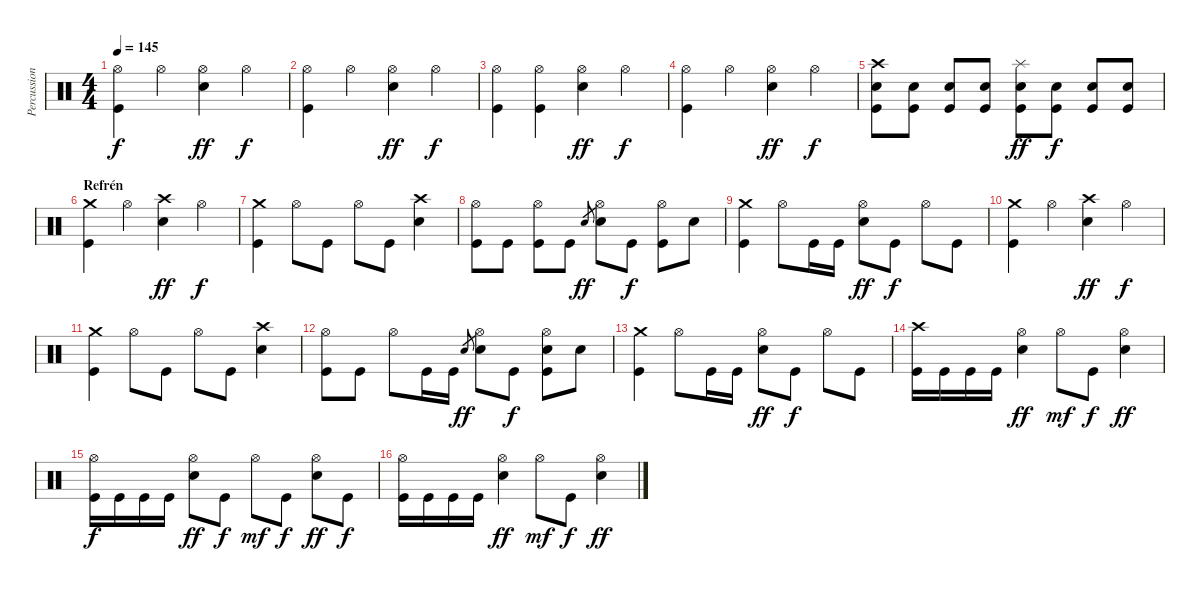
\track ("Percussion" "Percussion") {instrument percussion}
\staff {score}
\articulation defaults
\ts (4 4)
\tempo 145
\clef neutral
\ks c
("Hi-Hat (open)" "Kick (hit)").4{dy f} "Hi-Hat (open)".4 ("Hi-Hat (open)" "Snare (hit) 2").4{dy ff} "Hi-Hat (open)".4{dy f} |
("Hi-Hat (open)" "Kick (hit)").4 "Hi-Hat (open)".4 ("Hi-Hat (open)" "Snare (hit) 2").4{dy ff} "Hi-Hat (open)".4{dy f} |
("Hi-Hat (open)" "Kick (hit)").4 ("Hi-Hat (open)" "Kick (hit)").4 ("Hi-Hat (open)" "Snare (hit) 2").4{dy ff} "Hi-Hat (open)".4{dy f} |
("Hi-Hat (open)" "Kick (hit)").4 "Hi-Hat (open)".4 ("Hi-Hat (open)" "Snare (hit) 2").4{dy ff} "Hi-Hat (open)".4{dy f} |
("Crash high (hit)" "Kick (hit)" "Snare (hit) 2").8 ("Kick (hit)" "Snare (hit) 2").8 ("Kick (hit)" "Snare (hit) 2").8 ("Kick (hit)" "Snare (hit) 2").8 ("Splash (hit)" "Kick (hit)" "Snare (hit) 2").8{dy ff} ("Kick (hit)" "Snare (hit) 2").8{dy f} ("Kick (hit)" "Snare (hit) 2").8 ("Kick (hit)" "Snare (hit) 2").8 |
\section ("" "Refrén")
("Crash medium (hit)" "Kick (hit)").4 "Hi-Hat (open)".4 ("Crash high (hit)" "Snare (hit) 2").4{dy ff} "Hi-Hat (open)".4{dy f} |
("Crash medium (hit)" "Kick (hit)").4 "Hi-Hat (open)".8 "Kick (hit)".8 "Hi-Hat (open)".8 "Kick (hit)".8 ("Crash high (hit)" "Snare (hit) 2").4 |
("Hi-Hat (open)" "Kick (hit)").8 "Kick (hit)".8 ("Hi-Hat (open)" "Kick (hit)").8 "Kick (hit)".8 "Snare (hit) 2".8{gr dy ff} ("Hi-Hat (open)" "Snare (hit) 2").8 "Kick (hit)".8{dy f} ("Hi-Hat (open)" "Kick (hit)").8 "Snare (hit) 2".8 |
("Crash medium (hit)" "Kick (hit)").4 "Hi-Hat (open)".8 "Kick (hit)".16 "Kick (hit)".16 ("Hi-Hat (open)" "Snare (hit) 2").8{dy ff} "Kick (hit)".8{dy f} "Hi-Hat (open)".8 "Kick (hit)".8 |
("Crash medium (hit)" "Kick (hit)").4 "Hi-Hat (open)".4 ("Crash high (hit)" "Snare (hit) 2").4{dy ff} "Hi-Hat (open)".4{dy f} |
("Crash medium (hit)" "Kick (hit)").4 "Hi-Hat (open)".8 "Kick (hit)".8 "Hi-Hat (open)".8 "Kick (hit)".8 ("Crash high (hit)" "Snare (hit) 2").4 |
("Hi-Hat (open)" "Kick (hit)").8 "Kick (hit)".8 "Hi-Hat (open)".8 "Kick (hit)".16 "Kick (hit)".16 "Snare (hit) 2".8{gr dy ff} ("Hi-Hat (open)" "Snare (hit) 2").8 "Kick (hit)".8{dy f} ("Hi-Hat (open)" "Kick (hit)" "Snare (hit) 2").8 "Snare (hit) 2".8 |
("Crash medium (hit)" "Kick (hit)").4 "Hi-Hat (open)".8 "Kick (hit)".16 "Kick (hit)".16 ("Hi-Hat (open)" "Snare (hit) 2").8{dy ff} "Kick (hit)".8{dy f} "Hi-Hat (open)".8 "Kick (hit)".8 |
("Crash high (hit)" "Kick (hit)").16 "Kick (hit)".16 "Kick (hit)".16 "Kick (hit)".16 ("Hi-Hat (open)" "Snare (hit) 2").4{dy ff} "Hi-Hat (open)".8{dy mf} "Kick (hit)".8{dy f} ("Hi-Hat (open)" "Snare (hit) 2").4{dy ff} |
("Hi-Hat (open)" "Kick (hit)").16{dy f} "Kick (hit)".16 "Kick (hit)".16 "Kick (hit)".16 ("Hi-Hat (open)" "Snare (hit) 2").8{dy ff} "Kick (hit)".8{dy f} "Hi-Hat (open)".8{dy mf} "Kick (hit)".8{dy f} ("Hi-Hat (open)" "Snare (hit) 2").8{dy ff} "Kick (hit)".8{dy f} |
("Hi-Hat (open)" "Kick (hit)").16 "Kick (hit)".16 "Kick (hit)".16 "Kick (hit)".16 ("Hi-Hat (open)" "Snare (hit) 2").4{dy ff} "Hi-Hat (open)".8{dy mf} "Kick (hit)".8{dy f} ("Hi-Hat (open)" "Snare (hit) 2").4{dy ff}
